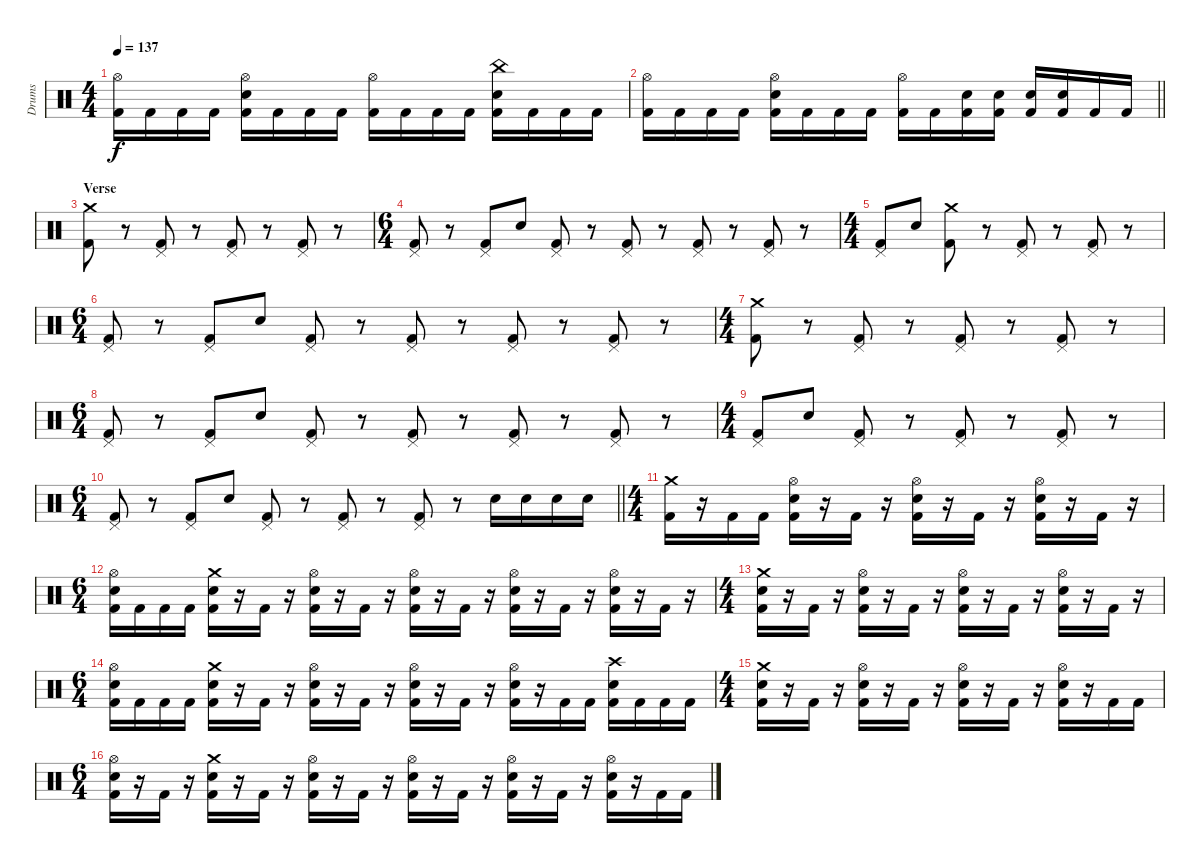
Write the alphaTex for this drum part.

\track ("Drums" "Drums") {instrument percussion}
\staff {score}
\articulation defaults
\ts (4 4)
\tempo 137
\clef neutral
\ks c
("Hi-Hat (open)" "Kick (hit) 2").16{dy f} "Kick (hit) 2".16 "Kick (hit) 2".16 "Kick (hit) 2".16 ("Hi-Hat (open)" "Electric Snare (hit)" "Kick (hit) 2").16 "Kick (hit) 2".16 "Kick (hit) 2".16 "Kick (hit) 2".16 ("Hi-Hat (open)" "Kick (hit) 2").16 "Kick (hit) 2".16 "Kick (hit) 2".16 "Kick (hit) 2".16 ("China (hit)" "Electric Snare (hit)" "Kick (hit) 2").16 "Kick (hit) 2".16 "Kick (hit) 2".16 "Kick (hit) 2".16 |
\barLineRight lightlight
("Hi-Hat (open)" "Kick (hit) 2").16 "Kick (hit) 2".16 "Kick (hit) 2".16 "Kick (hit) 2".16 ("Hi-Hat (open)" "Electric Snare (hit)" "Kick (hit) 2").16 "Kick (hit) 2".16 "Kick (hit) 2".16 "Kick (hit) 2".16 ("Hi-Hat (open)" "Kick (hit) 2").16 "Kick (hit) 2".16 ("Electric Snare (hit)" "Kick (hit) 2").16 ("Electric Snare (hit)" "Kick (hit) 2").16 ("Electric Snare (hit)" "Kick (hit) 2").16 ("Electric Snare (hit)" "Kick (hit) 2").16 "Kick (hit) 2".16 "Kick (hit) 2".16 |
\section ("" "Verse")
("Crash medium (hit)" "Kick (hit) 2").8 r.8 ("Pedal Hi-Hat (hit)" "Kick (hit) 2").8 r.8 ("Pedal Hi-Hat (hit)" "Kick (hit) 2").8 r.8 ("Pedal Hi-Hat (hit)" "Kick (hit) 2").8 r.8 |
\ts (6 4)
("Pedal Hi-Hat (hit)" "Kick (hit) 2").8 r.8 ("Pedal Hi-Hat (hit)" "Kick (hit) 2").8 "Electric Snare (hit)".8 ("Pedal Hi-Hat (hit)" "Kick (hit) 2").8 r.8 ("Pedal Hi-Hat (hit)" "Kick (hit) 2").8 r.8 ("Pedal Hi-Hat (hit)" "Kick (hit) 2").8 r.8 ("Pedal Hi-Hat (hit)" "Kick (hit) 2").8 r.8 |
\ts (4 4)
("Pedal Hi-Hat (hit)" "Kick (hit) 2").8 "Electric Snare (hit)".8 ("Crash medium (hit)" "Kick (hit) 2").8 r.8 ("Pedal Hi-Hat (hit)" "Kick (hit) 2").8 r.8 ("Pedal Hi-Hat (hit)" "Kick (hit) 2").8 r.8 |
\ts (6 4)
("Pedal Hi-Hat (hit)" "Kick (hit) 2").8 r.8 ("Pedal Hi-Hat (hit)" "Kick (hit) 2").8 "Electric Snare (hit)".8 ("Pedal Hi-Hat (hit)" "Kick (hit) 2").8 r.8 ("Pedal Hi-Hat (hit)" "Kick (hit) 2").8 r.8 ("Pedal Hi-Hat (hit)" "Kick (hit) 2").8 r.8 ("Pedal Hi-Hat (hit)" "Kick (hit) 2").8 r.8 |
\ts (4 4)
("Crash medium (hit)" "Kick (hit) 2").8 r.8 ("Pedal Hi-Hat (hit)" "Kick (hit) 2").8 r.8 ("Pedal Hi-Hat (hit)" "Kick (hit) 2").8 r.8 ("Pedal Hi-Hat (hit)" "Kick (hit) 2").8 r.8 |
\ts (6 4)
("Pedal Hi-Hat (hit)" "Kick (hit) 2").8 r.8 ("Pedal Hi-Hat (hit)" "Kick (hit) 2").8 "Electric Snare (hit)".8 ("Pedal Hi-Hat (hit)" "Kick (hit) 2").8 r.8 ("Pedal Hi-Hat (hit)" "Kick (hit) 2").8 r.8 ("Pedal Hi-Hat (hit)" "Kick (hit) 2").8 r.8 ("Pedal Hi-Hat (hit)" "Kick (hit) 2").8 r.8 |
\ts (4 4)
("Pedal Hi-Hat (hit)" "Kick (hit) 2").8 "Electric Snare (hit)".8 ("Pedal Hi-Hat (hit)" "Kick (hit) 2").8 r.8 ("Pedal Hi-Hat (hit)" "Kick (hit) 2").8 r.8 ("Pedal Hi-Hat (hit)" "Kick (hit) 2").8 r.8 |
\ts (6 4)
\barLineRight lightlight
("Pedal Hi-Hat (hit)" "Kick (hit) 2").8 r.8 ("Pedal Hi-Hat (hit)" "Kick (hit) 2").8 "Electric Snare (hit)".8 ("Pedal Hi-Hat (hit)" "Kick (hit) 2").8 r.8 ("Pedal Hi-Hat (hit)" "Kick (hit) 2").8 r.8 ("Pedal Hi-Hat (hit)" "Kick (hit) 2").8 r.8 "Electric Snare (hit)".16 "Electric Snare (hit)".16 "Electric Snare (hit)".16 "Electric Snare (hit)".16 |
\ts (4 4)
\section ("" "")
("Crash medium (hit)" "Kick (hit) 2").16 r.16 "Kick (hit) 2".16 "Kick (hit) 2".16 ("Hi-Hat (open)" "Electric Snare (hit)" "Kick (hit) 2").16 r.16 "Kick (hit) 2".16 r.16 ("Hi-Hat (open)" "Electric Snare (hit)" "Kick (hit) 2").16 r.16 "Kick (hit) 2".16 r.16 ("Hi-Hat (open)" "Electric Snare (hit)" "Kick (hit) 2").16 r.16 "Kick (hit) 2".16 r.16 |
\ts (6 4)
("Hi-Hat (open)" "Electric Snare (hit)" "Kick (hit) 2").16 "Kick (hit) 2".16 "Kick (hit) 2".16 "Kick (hit) 2".16 ("Crash medium (hit)" "Electric Snare (hit)" "Kick (hit) 2").16 r.16 "Kick (hit) 2".16 r.16 ("Hi-Hat (open)" "Electric Snare (hit)" "Kick (hit) 2").16 r.16 "Kick (hit) 2".16 r.16 ("Hi-Hat (open)" "Electric Snare (hit)" "Kick (hit) 2").16 r.16 "Kick (hit) 2".16 r.16 ("Hi-Hat (open)" "Electric Snare (hit)" "Kick (hit) 2").16 r.16 "Kick (hit) 2".16 r.16 ("Hi-Hat (open)" "Electric Snare (hit)" "Kick (hit) 2").16 r.16 "Kick (hit) 2".16 r.16 |
\ts (4 4)
("Crash medium (hit)" "Electric Snare (hit)" "Kick (hit) 2").16 r.16 "Kick (hit) 2".16 r.16 ("Hi-Hat (open)" "Electric Snare (hit)" "Kick (hit) 2").16 r.16 "Kick (hit) 2".16 r.16 ("Hi-Hat (open)" "Electric Snare (hit)" "Kick (hit) 2").16 r.16 "Kick (hit) 2".16 r.16 ("Hi-Hat (open)" "Electric Snare (hit)" "Kick (hit) 2").16 r.16 "Kick (hit) 2".16 r.16 |
\ts (6 4)
("Hi-Hat (open)" "Electric Snare (hit)" "Kick (hit) 2").16 "Kick (hit) 2".16 "Kick (hit) 2".16 "Kick (hit) 2".16 ("Crash medium (hit)" "Electric Snare (hit)" "Kick (hit) 2").16 r.16 "Kick (hit) 2".16 r.16 ("Hi-Hat (open)" "Electric Snare (hit)" "Kick (hit) 2").16 r.16 "Kick (hit) 2".16 r.16 ("Hi-Hat (open)" "Electric Snare (hit)" "Kick (hit) 2").16 r.16 "Kick (hit) 2".16 r.16 ("Hi-Hat (open)" "Electric Snare (hit)" "Kick (hit) 2").16 r.16 "Kick (hit) 2".16 "Kick (hit) 2".16 ("Crash high (hit)" "Electric Snare (hit)" "Kick (hit) 2").16 "Kick (hit) 2".16 "Kick (hit) 2".16 "Kick (hit) 2".16 |
\ts (4 4)
("Crash medium (hit)" "Electric Snare (hit)" "Kick (hit) 2").16 r.16 "Kick (hit) 2".16 r.16 ("Hi-Hat (open)" "Electric Snare (hit)" "Kick (hit) 2").16 r.16 "Kick (hit) 2".16 r.16 ("Hi-Hat (open)" "Electric Snare (hit)" "Kick (hit) 2").16 r.16 "Kick (hit) 2".16 r.16 ("Hi-Hat (open)" "Electric Snare (hit)" "Kick (hit) 2").16 r.16 "Kick (hit) 2".16 "Kick (hit) 2".16 |
\ts (6 4)
("Hi-Hat (open)" "Electric Snare (hit)" "Kick (hit) 2").16 r.16 "Kick (hit) 2".16 r.16 ("Crash medium (hit)" "Electric Snare (hit)" "Kick (hit) 2").16 r.16 "Kick (hit) 2".16 r.16 ("Hi-Hat (open)" "Electric Snare (hit)" "Kick (hit) 2").16 r.16 "Kick (hit) 2".16 r.16 ("Hi-Hat (open)" "Electric Snare (hit)" "Kick (hit) 2").16 r.16 "Kick (hit) 2".16 r.16 ("Hi-Hat (open)" "Electric Snare (hit)" "Kick (hit) 2").16 r.16 "Kick (hit) 2".16 r.16 ("Hi-Hat (open)" "Electric Snare (hit)" "Kick (hit) 2").16 r.16 "Kick (hit) 2".16 "Kick (hit) 2".16
